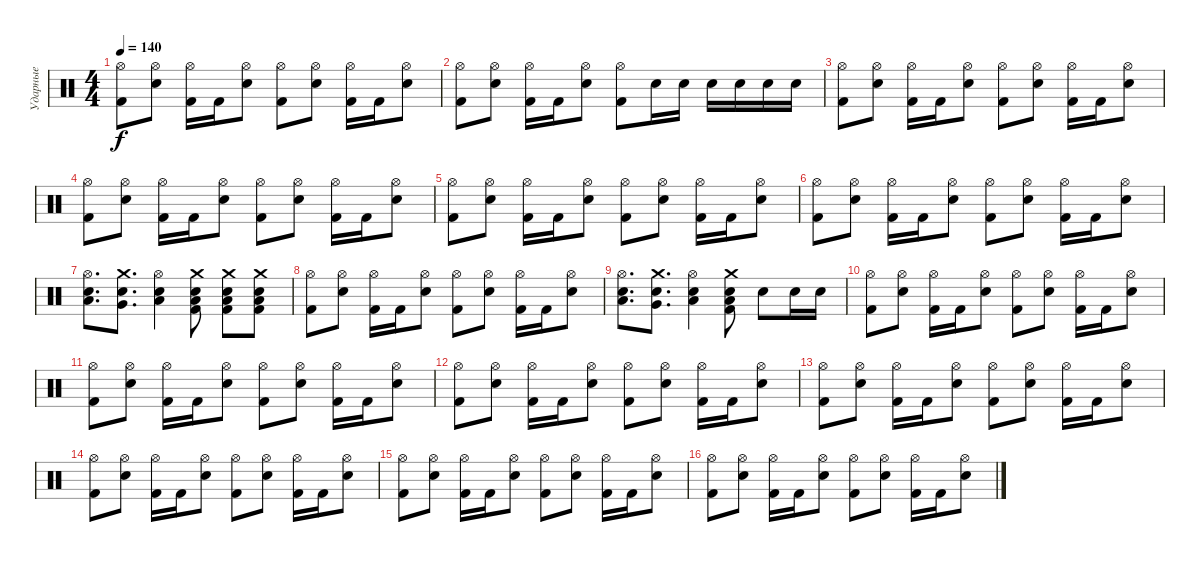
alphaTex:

\track ("Ударные" "Ударные") {instrument percussion}
\staff {score}
\articulation defaults
\ts (4 4)
\tempo 140
\clef neutral
\ks c
("Hi-Hat (open)" "Kick (hit) 2").8{dy f} ("Hi-Hat (open)" "Electric Snare (hit)").8 ("Hi-Hat (open)" "Kick (hit) 2").16 "Kick (hit) 2".16 ("Hi-Hat (open)" "Electric Snare (hit)").8 ("Hi-Hat (open)" "Kick (hit) 2").8 ("Hi-Hat (open)" "Electric Snare (hit)").8 ("Hi-Hat (open)" "Kick (hit) 2").16 "Kick (hit) 2".16 ("Hi-Hat (open)" "Electric Snare (hit)").8 |
("Hi-Hat (open)" "Kick (hit) 2").8 ("Hi-Hat (open)" "Electric Snare (hit)").8 ("Hi-Hat (open)" "Kick (hit) 2").16 "Kick (hit) 2".16 ("Hi-Hat (open)" "Electric Snare (hit)").8 ("Hi-Hat (open)" "Kick (hit) 2").8 "Electric Snare (hit)".16 "Electric Snare (hit)".16 "Electric Snare (hit)".16 "Electric Snare (hit)".16 "Electric Snare (hit)".16 "Electric Snare (hit)".16 |
("Hi-Hat (open)" "Kick (hit) 2").8 ("Hi-Hat (open)" "Electric Snare (hit)").8 ("Hi-Hat (open)" "Kick (hit) 2").16 "Kick (hit) 2".16 ("Hi-Hat (open)" "Electric Snare (hit)").8 ("Hi-Hat (open)" "Kick (hit) 2").8 ("Hi-Hat (open)" "Electric Snare (hit)").8 ("Hi-Hat (open)" "Kick (hit) 2").16 "Kick (hit) 2".16 ("Hi-Hat (open)" "Electric Snare (hit)").8 |
("Hi-Hat (open)" "Kick (hit) 2").8 ("Hi-Hat (open)" "Electric Snare (hit)").8 ("Hi-Hat (open)" "Kick (hit) 2").16 "Kick (hit) 2".16 ("Hi-Hat (open)" "Electric Snare (hit)").8 ("Hi-Hat (open)" "Kick (hit) 2").8 ("Hi-Hat (open)" "Electric Snare (hit)").8 ("Hi-Hat (open)" "Kick (hit) 2").16 "Kick (hit) 2".16 ("Hi-Hat (open)" "Electric Snare (hit)").8 |
("Hi-Hat (open)" "Kick (hit) 2").8 ("Hi-Hat (open)" "Electric Snare (hit)").8 ("Hi-Hat (open)" "Kick (hit) 2").16 "Kick (hit) 2".16 ("Hi-Hat (open)" "Electric Snare (hit)").8 ("Hi-Hat (open)" "Kick (hit) 2").8 ("Hi-Hat (open)" "Electric Snare (hit)").8 ("Hi-Hat (open)" "Kick (hit) 2").16 "Kick (hit) 2".16 ("Hi-Hat (open)" "Electric Snare (hit)").8 |
("Hi-Hat (open)" "Kick (hit) 2").8 ("Hi-Hat (open)" "Electric Snare (hit)").8 ("Hi-Hat (open)" "Kick (hit) 2").16 "Kick (hit) 2".16 ("Hi-Hat (open)" "Electric Snare (hit)").8 ("Hi-Hat (open)" "Kick (hit) 2").8 ("Hi-Hat (open)" "Electric Snare (hit)").8 ("Hi-Hat (open)" "Kick (hit) 2").16 "Kick (hit) 2".16 ("Hi-Hat (open)" "Electric Snare (hit)").8 |
("Hi-Hat (open)" "Electric Snare (hit)" "Low Floor Tom (hit)").8{d} ("Crash medium (hit)" "Electric Snare (hit)" "Very Low Tom (hit)").8{d} ("Hi-Hat (open)" "Electric Snare (hit)" "Low Floor Tom (hit)").4 ("Crash medium (hit)" "Kick (hit) 2" "Electric Snare (hit)" "Low Floor Tom (hit)").8 ("Crash medium (hit)" "Kick (hit) 2" "Electric Snare (hit)" "Low Floor Tom (hit)").8 ("Crash medium (hit)" "Kick (hit) 2" "Electric Snare (hit)" "Low Floor Tom (hit)").8 |
("Hi-Hat (open)" "Kick (hit) 2").8 ("Hi-Hat (open)" "Electric Snare (hit)").8 ("Hi-Hat (open)" "Kick (hit) 2").16 "Kick (hit) 2".16 ("Hi-Hat (open)" "Electric Snare (hit)").8 ("Hi-Hat (open)" "Kick (hit) 2").8 ("Hi-Hat (open)" "Electric Snare (hit)").8 ("Hi-Hat (open)" "Kick (hit) 2").16 "Kick (hit) 2".16 ("Hi-Hat (open)" "Electric Snare (hit)").8 |
("Hi-Hat (open)" "Electric Snare (hit)" "Low Floor Tom (hit)").8{d} ("Crash medium (hit)" "Electric Snare (hit)" "Very Low Tom (hit)").8{d} ("Hi-Hat (open)" "Electric Snare (hit)" "Low Floor Tom (hit)").4 ("Crash medium (hit)" "Kick (hit) 2" "Electric Snare (hit)" "Low Floor Tom (hit)").8 "Electric Snare (hit)".8 "Electric Snare (hit)".16 "Electric Snare (hit)".16 |
("Hi-Hat (open)" "Kick (hit) 2").8 ("Hi-Hat (open)" "Electric Snare (hit)").8 ("Hi-Hat (open)" "Kick (hit) 2").16 "Kick (hit) 2".16 ("Hi-Hat (open)" "Electric Snare (hit)").8 ("Hi-Hat (open)" "Kick (hit) 2").8 ("Hi-Hat (open)" "Electric Snare (hit)").8 ("Hi-Hat (open)" "Kick (hit) 2").16 "Kick (hit) 2".16 ("Hi-Hat (open)" "Electric Snare (hit)").8 |
("Hi-Hat (open)" "Kick (hit) 2").8 ("Hi-Hat (open)" "Electric Snare (hit)").8 ("Hi-Hat (open)" "Kick (hit) 2").16 "Kick (hit) 2".16 ("Hi-Hat (open)" "Electric Snare (hit)").8 ("Hi-Hat (open)" "Kick (hit) 2").8 ("Hi-Hat (open)" "Electric Snare (hit)").8 ("Hi-Hat (open)" "Kick (hit) 2").16 "Kick (hit) 2".16 ("Hi-Hat (open)" "Electric Snare (hit)").8 |
("Hi-Hat (open)" "Kick (hit) 2").8 ("Hi-Hat (open)" "Electric Snare (hit)").8 ("Hi-Hat (open)" "Kick (hit) 2").16 "Kick (hit) 2".16 ("Hi-Hat (open)" "Electric Snare (hit)").8 ("Hi-Hat (open)" "Kick (hit) 2").8 ("Hi-Hat (open)" "Electric Snare (hit)").8 ("Hi-Hat (open)" "Kick (hit) 2").16 "Kick (hit) 2".16 ("Hi-Hat (open)" "Electric Snare (hit)").8 |
("Hi-Hat (open)" "Kick (hit) 2").8 ("Hi-Hat (open)" "Electric Snare (hit)").8 ("Hi-Hat (open)" "Kick (hit) 2").16 "Kick (hit) 2".16 ("Hi-Hat (open)" "Electric Snare (hit)").8 ("Hi-Hat (open)" "Kick (hit) 2").8 ("Hi-Hat (open)" "Electric Snare (hit)").8 ("Hi-Hat (open)" "Kick (hit) 2").16 "Kick (hit) 2".16 ("Hi-Hat (open)" "Electric Snare (hit)").8 |
("Hi-Hat (open)" "Kick (hit) 2").8 ("Hi-Hat (open)" "Electric Snare (hit)").8 ("Hi-Hat (open)" "Kick (hit) 2").16 "Kick (hit) 2".16 ("Hi-Hat (open)" "Electric Snare (hit)").8 ("Hi-Hat (open)" "Kick (hit) 2").8 ("Hi-Hat (open)" "Electric Snare (hit)").8 ("Hi-Hat (open)" "Kick (hit) 2").16 "Kick (hit) 2".16 ("Hi-Hat (open)" "Electric Snare (hit)").8 |
("Hi-Hat (open)" "Kick (hit) 2").8 ("Hi-Hat (open)" "Electric Snare (hit)").8 ("Hi-Hat (open)" "Kick (hit) 2").16 "Kick (hit) 2".16 ("Hi-Hat (open)" "Electric Snare (hit)").8 ("Hi-Hat (open)" "Kick (hit) 2").8 ("Hi-Hat (open)" "Electric Snare (hit)").8 ("Hi-Hat (open)" "Kick (hit) 2").16 "Kick (hit) 2".16 ("Hi-Hat (open)" "Electric Snare (hit)").8 |
("Hi-Hat (open)" "Kick (hit) 2").8 ("Hi-Hat (open)" "Electric Snare (hit)").8 ("Hi-Hat (open)" "Kick (hit) 2").16 "Kick (hit) 2".16 ("Hi-Hat (open)" "Electric Snare (hit)").8 ("Hi-Hat (open)" "Kick (hit) 2").8 ("Hi-Hat (open)" "Electric Snare (hit)").8 ("Hi-Hat (open)" "Kick (hit) 2").16 "Kick (hit) 2".16 ("Hi-Hat (open)" "Electric Snare (hit)").8
